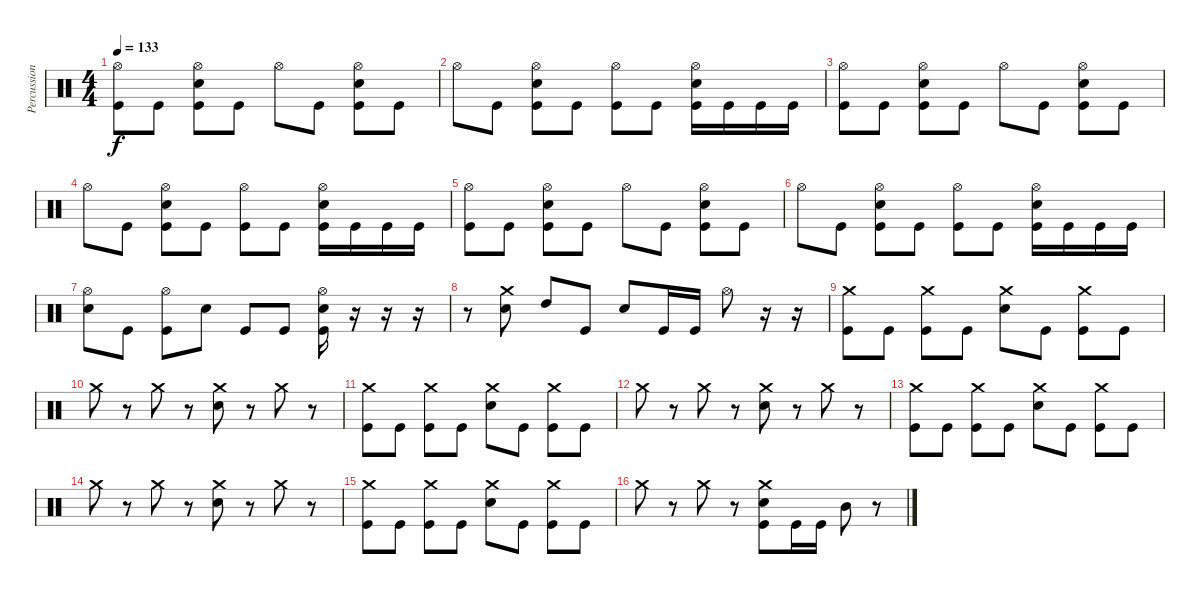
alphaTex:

\track ("Percussion" "Percussion") {instrument percussion}
\staff {score}
\articulation defaults
\ts (4 4)
\tempo 133
\clef neutral
\ks c
("Hi-Hat (open)" "Kick (hit)").8{dy f} "Kick (hit)".8 ("Hi-Hat (open)" "Electric Snare (hit)" "Kick (hit)").8 "Kick (hit)".8 "Hi-Hat (open)".8 "Kick (hit)".8 ("Hi-Hat (open)" "Electric Snare (hit)" "Kick (hit)").8 "Kick (hit)".8 |
"Hi-Hat (open)".8 "Kick (hit)".8 ("Hi-Hat (open)" "Electric Snare (hit)" "Kick (hit)").8 "Kick (hit)".8 ("Hi-Hat (open)" "Kick (hit)").8 "Kick (hit)".8 ("Hi-Hat (open)" "Electric Snare (hit)" "Kick (hit)").16 "Kick (hit)".16 "Kick (hit)".16 "Kick (hit)".16 |
("Hi-Hat (open)" "Kick (hit)").8 "Kick (hit)".8 ("Hi-Hat (open)" "Electric Snare (hit)" "Kick (hit)").8 "Kick (hit)".8 "Hi-Hat (open)".8 "Kick (hit)".8 ("Hi-Hat (open)" "Electric Snare (hit)" "Kick (hit)").8 "Kick (hit)".8 |
"Hi-Hat (open)".8 "Kick (hit)".8 ("Hi-Hat (open)" "Electric Snare (hit)" "Kick (hit)").8 "Kick (hit)".8 ("Hi-Hat (open)" "Kick (hit)").8 "Kick (hit)".8 ("Hi-Hat (open)" "Electric Snare (hit)" "Kick (hit)").16 "Kick (hit)".16 "Kick (hit)".16 "Kick (hit)".16 |
("Hi-Hat (open)" "Kick (hit)").8 "Kick (hit)".8 ("Hi-Hat (open)" "Electric Snare (hit)" "Kick (hit)").8 "Kick (hit)".8 "Hi-Hat (open)".8 "Kick (hit)".8 ("Hi-Hat (open)" "Electric Snare (hit)" "Kick (hit)").8 "Kick (hit)".8 |
"Hi-Hat (open)".8 "Kick (hit)".8 ("Hi-Hat (open)" "Electric Snare (hit)" "Kick (hit)").8 "Kick (hit)".8 ("Hi-Hat (open)" "Kick (hit)").8 "Kick (hit)".8 ("Hi-Hat (open)" "Electric Snare (hit)" "Kick (hit)").16 "Kick (hit)".16 "Kick (hit)".16 "Kick (hit)".16 |
("Hi-Hat (open)" "Electric Snare (hit)").8 "Kick (hit)".8 ("Hi-Hat (open)" "Kick (hit)").8 "Electric Snare (hit)".8 "Kick (hit)".8 "Kick (hit)".8 ("Hi-Hat (open)" "Electric Snare (hit)" "Kick (hit)").16 r.16 r.16 r.16 |
r.8 ("Crash medium (hit)" "Electric Snare (hit)").8 "High Tom (hit)".8 "Kick (hit)".8 "Electric Snare (hit)".8 "Kick (hit)".16 "Kick (hit)".16 "Hi-Hat (open)".8 r.16 r.16 |
("Crash medium (hit)" "Kick (hit)").8 "Kick (hit)".8 ("Crash medium (hit)" "Kick (hit)").8 "Kick (hit)".8 ("Crash medium (hit)" "Electric Snare (hit)").8 "Kick (hit)".8 ("Crash medium (hit)" "Kick (hit)").8 "Kick (hit)".8 |
"Crash medium (hit)".8 r.8 "Crash medium (hit)".8 r.8 ("Crash medium (hit)" "Electric Snare (hit)").8 r.8 "Crash medium (hit)".8 r.8 |
("Crash medium (hit)" "Kick (hit)").8 "Kick (hit)".8 ("Crash medium (hit)" "Kick (hit)").8 "Kick (hit)".8 ("Crash medium (hit)" "Electric Snare (hit)").8 "Kick (hit)".8 ("Crash medium (hit)" "Kick (hit)").8 "Kick (hit)".8 |
"Crash medium (hit)".8 r.8 "Crash medium (hit)".8 r.8 ("Crash medium (hit)" "Electric Snare (hit)").8 r.8 "Crash medium (hit)".8 r.8 |
("Crash medium (hit)" "Kick (hit)").8 "Kick (hit)".8 ("Crash medium (hit)" "Kick (hit)").8 "Kick (hit)".8 ("Crash medium (hit)" "Electric Snare (hit)").8 "Kick (hit)".8 ("Crash medium (hit)" "Kick (hit)").8 "Kick (hit)".8 |
"Crash medium (hit)".8 r.8 "Crash medium (hit)".8 r.8 ("Crash medium (hit)" "Electric Snare (hit)").8 r.8 "Crash medium (hit)".8 r.8 |
("Crash medium (hit)" "Kick (hit)").8 "Kick (hit)".8 ("Crash medium (hit)" "Kick (hit)").8 "Kick (hit)".8 ("Crash medium (hit)" "Electric Snare (hit)").8 "Kick (hit)".8 ("Crash medium (hit)" "Kick (hit)").8 "Kick (hit)".8 |
"Crash medium (hit)".8 r.8 "Crash medium (hit)".8 r.8 ("Crash medium (hit)" "Electric Snare (hit)" "Kick (hit)").8 "Kick (hit)".16 "Kick (hit)".16 "Mid Tom (hit)".8 r.8
